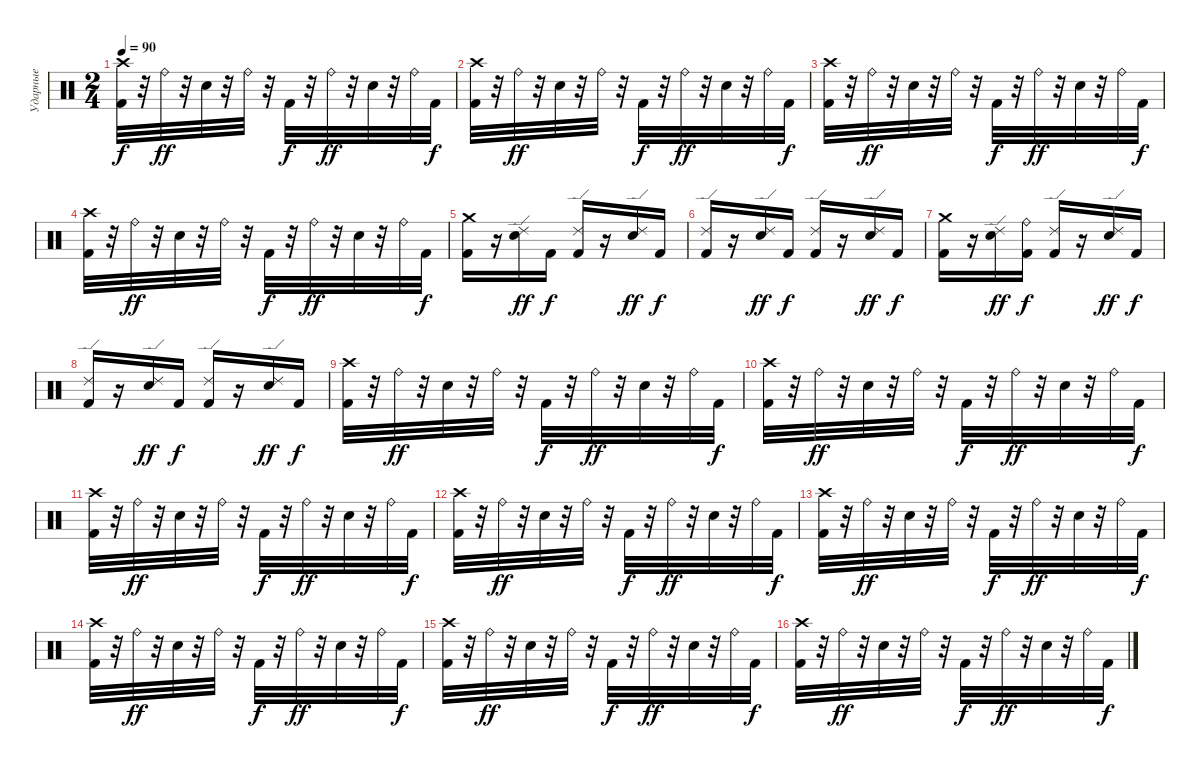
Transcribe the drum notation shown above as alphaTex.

\track ("Ударные" "Ударные") {instrument percussion}
\staff {score}
\articulation defaults
\ts (2 4)
\tempo 90
\clef neutral
\ks c
("Crash high (hit)" "Kick (hit) 2").32{dy f} r.32 "Ride (bell)".32{dy ff} r.32 "Electric Snare (hit)".32 r.32 "Ride (bell)".32 r.32 "Kick (hit) 2".32{dy f} r.32 "Ride (bell)".32{dy ff} r.32 "Electric Snare (hit)".32 r.32 "Ride (bell)".32 "Kick (hit) 2".32{dy f} |
("Crash high (hit)" "Kick (hit) 2").32 r.32 "Ride (bell)".32{dy ff} r.32 "Electric Snare (hit)".32 r.32 "Ride (bell)".32 r.32 "Kick (hit) 2".32{dy f} r.32 "Ride (bell)".32{dy ff} r.32 "Electric Snare (hit)".32 r.32 "Ride (bell)".32 "Kick (hit) 2".32{dy f} |
("Crash high (hit)" "Kick (hit) 2").32 r.32 "Ride (bell)".32{dy ff} r.32 "Electric Snare (hit)".32 r.32 "Ride (bell)".32 r.32 "Kick (hit) 2".32{dy f} r.32 "Ride (bell)".32{dy ff} r.32 "Electric Snare (hit)".32 r.32 "Ride (bell)".32 "Kick (hit) 2".32{dy f} |
("Crash high (hit)" "Kick (hit) 2").32 r.32 "Ride (bell)".32{dy ff} r.32 "Electric Snare (hit)".32 r.32 "Ride (bell)".32 r.32 "Kick (hit) 2".32{dy f} r.32 "Ride (bell)".32{dy ff} r.32 "Electric Snare (hit)".32 r.32 "Ride (bell)".32 "Kick (hit) 2".32{dy f} |
("Crash medium (hit)" "Kick (hit) 2").16 r.16 ("Ride (edge) 2" "Electric Snare (hit)").16{dy ff} "Kick (hit) 2".16{dy f} ("Ride (edge) 2" "Kick (hit) 2").16 r.16 ("Ride (edge) 2" "Electric Snare (hit)").16{dy ff} "Kick (hit) 2".16{dy f} |
("Ride (edge) 2" "Kick (hit) 2").16 r.16 ("Ride (edge) 2" "Electric Snare (hit)").16{dy ff} "Kick (hit) 2".16{dy f} ("Ride (edge) 2" "Kick (hit) 2").16 r.16 ("Ride (edge) 2" "Electric Snare (hit)").16{dy ff} "Kick (hit) 2".16{dy f} |
("Crash medium (hit)" "Kick (hit) 2").16 r.16 ("Ride (edge) 2" "Electric Snare (hit)").16{dy ff} ("Ride (bell)" "Kick (hit) 2").16{dy f} ("Ride (edge) 2" "Kick (hit) 2").16 r.16 ("Ride (edge) 2" "Electric Snare (hit)").16{dy ff} "Kick (hit) 2".16{dy f} |
("Ride (edge) 2" "Kick (hit) 2").16 r.16 ("Ride (edge) 2" "Electric Snare (hit)").16{dy ff} "Kick (hit) 2".16{dy f} ("Ride (edge) 2" "Kick (hit) 2").16 r.16 ("Ride (edge) 2" "Electric Snare (hit)").16{dy ff} "Kick (hit) 2".16{dy f} |
("Crash high (hit)" "Kick (hit) 2").32 r.32 "Ride (bell)".32{dy ff} r.32 "Electric Snare (hit)".32 r.32 "Ride (bell)".32 r.32 "Kick (hit) 2".32{dy f} r.32 "Ride (bell)".32{dy ff} r.32 "Electric Snare (hit)".32 r.32 "Ride (bell)".32 "Kick (hit) 2".32{dy f} |
("Crash high (hit)" "Kick (hit) 2").32 r.32 "Ride (bell)".32{dy ff} r.32 "Electric Snare (hit)".32 r.32 "Ride (bell)".32 r.32 "Kick (hit) 2".32{dy f} r.32 "Ride (bell)".32{dy ff} r.32 "Electric Snare (hit)".32 r.32 "Ride (bell)".32 "Kick (hit) 2".32{dy f} |
("Crash high (hit)" "Kick (hit) 2").32 r.32 "Ride (bell)".32{dy ff} r.32 "Electric Snare (hit)".32 r.32 "Ride (bell)".32 r.32 "Kick (hit) 2".32{dy f} r.32 "Ride (bell)".32{dy ff} r.32 "Electric Snare (hit)".32 r.32 "Ride (bell)".32 "Kick (hit) 2".32{dy f} |
("Crash high (hit)" "Kick (hit) 2").32 r.32 "Ride (bell)".32{dy ff} r.32 "Electric Snare (hit)".32 r.32 "Ride (bell)".32 r.32 "Kick (hit) 2".32{dy f} r.32 "Ride (bell)".32{dy ff} r.32 "Electric Snare (hit)".32 r.32 "Ride (bell)".32 "Kick (hit) 2".32{dy f} |
("Crash high (hit)" "Kick (hit) 2").32 r.32 "Ride (bell)".32{dy ff} r.32 "Electric Snare (hit)".32 r.32 "Ride (bell)".32 r.32 "Kick (hit) 2".32{dy f} r.32 "Ride (bell)".32{dy ff} r.32 "Electric Snare (hit)".32 r.32 "Ride (bell)".32 "Kick (hit) 2".32{dy f} |
("Crash high (hit)" "Kick (hit) 2").32 r.32 "Ride (bell)".32{dy ff} r.32 "Electric Snare (hit)".32 r.32 "Ride (bell)".32 r.32 "Kick (hit) 2".32{dy f} r.32 "Ride (bell)".32{dy ff} r.32 "Electric Snare (hit)".32 r.32 "Ride (bell)".32 "Kick (hit) 2".32{dy f} |
("Crash high (hit)" "Kick (hit) 2").32 r.32 "Ride (bell)".32{dy ff} r.32 "Electric Snare (hit)".32 r.32 "Ride (bell)".32 r.32 "Kick (hit) 2".32{dy f} r.32 "Ride (bell)".32{dy ff} r.32 "Electric Snare (hit)".32 r.32 "Ride (bell)".32 "Kick (hit) 2".32{dy f} |
("Crash high (hit)" "Kick (hit) 2").32 r.32 "Ride (bell)".32{dy ff} r.32 "Electric Snare (hit)".32 r.32 "Ride (bell)".32 r.32 "Kick (hit) 2".32{dy f} r.32 "Ride (bell)".32{dy ff} r.32 "Electric Snare (hit)".32 r.32 "Ride (bell)".32 "Kick (hit) 2".32{dy f}
